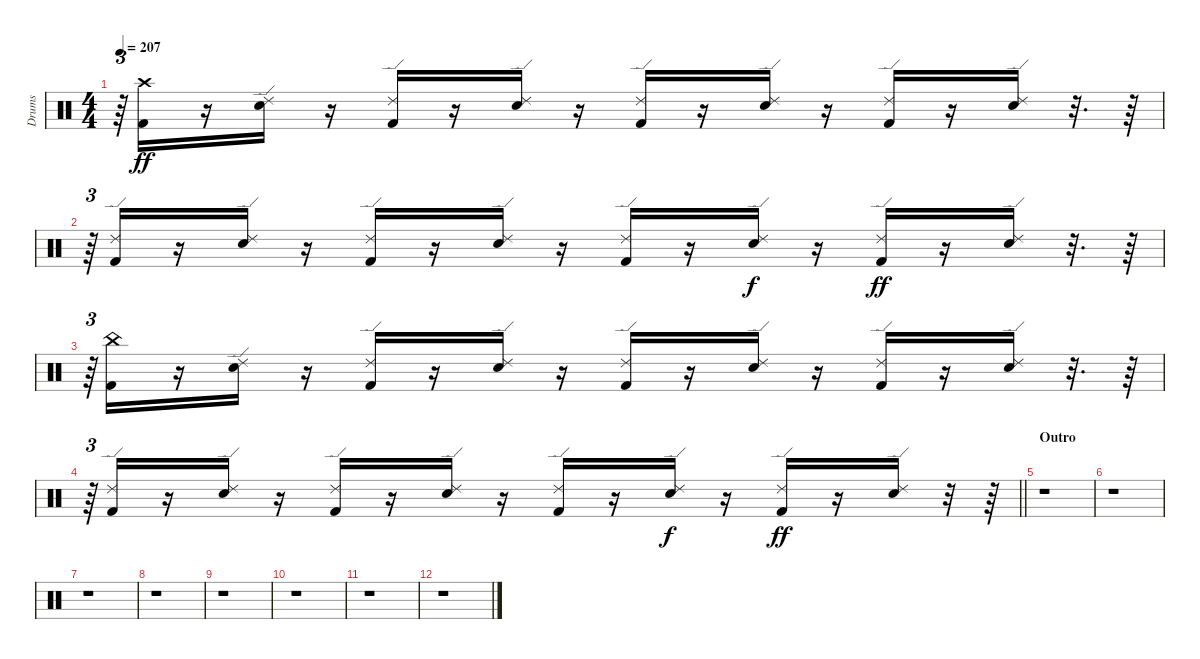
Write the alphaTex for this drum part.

\track ("Drums" "Drums") {instrument percussion}
\staff {score}
\articulation defaults
\ts (4 4)
\tempo 207
\clef neutral
\ks c
r.64{tu (3 2) dy ff} ("Kick (hit) 2" "Crash high (hit)").16 r.16 ("Snare (hit) 2" "Ride (edge) 2").16 r.16 ("Kick (hit) 2" "Ride (edge) 2").16 r.16 ("Snare (hit) 2" "Ride (edge) 2").16 r.16 ("Kick (hit) 2" "Ride (edge) 2").16 r.16 ("Snare (hit) 2" "Ride (edge) 2").16 r.16 ("Kick (hit) 2" "Ride (edge) 2").16 r.16 ("Snare (hit) 2" "Ride (edge) 2").16 r.32{d} r.64 |
r.64{tu (3 2)} ("Kick (hit) 2" "Ride (edge) 2").16 r.16 ("Snare (hit) 2" "Ride (edge) 2").16 r.16 ("Kick (hit) 2" "Ride (edge) 2").16 r.16 ("Snare (hit) 2" "Ride (edge) 2").16 r.16 ("Kick (hit) 2" "Ride (edge) 2").16 r.16 ("Snare (hit) 2" "Ride (edge) 2").16{dy f} r.16 ("Kick (hit) 2" "Ride (edge) 2").16{dy ff} r.16 ("Snare (hit) 2" "Ride (edge) 2").16 r.32{d} r.64 |
r.64{tu (3 2)} ("Kick (hit) 2" "China (hit)").16 r.16 ("Snare (hit) 2" "Ride (edge) 2").16 r.16 ("Kick (hit) 2" "Ride (edge) 2").16 r.16 ("Snare (hit) 2" "Ride (edge) 2").16 r.16 ("Kick (hit) 2" "Ride (edge) 2").16 r.16 ("Snare (hit) 2" "Ride (edge) 2").16 r.16 ("Kick (hit) 2" "Ride (edge) 2").16 r.16 ("Snare (hit) 2" "Ride (edge) 2").16 r.32{d} r.64 |
\barLineRight lightlight
r.64{tu (3 2)} ("Kick (hit) 2" "Ride (edge) 2").16 r.16 ("Snare (hit) 2" "Ride (edge) 2").16 r.16 ("Kick (hit) 2" "Ride (edge) 2").16 r.16 ("Snare (hit) 2" "Ride (edge) 2").16 r.16 ("Kick (hit) 2" "Ride (edge) 2").16 r.16 ("Snare (hit) 2" "Ride (edge) 2").16{dy f} r.16 ("Kick (hit) 2" "Ride (edge) 2").16{dy ff} r.16 ("Snare (hit) 2" "Ride (edge) 2").16 r.32 r.64 |
\section ("" "Outro")
r.1 |
r.1 |
r.1 |
r.1 |
r.1 |
r.1 |
r.1 |
r.1
